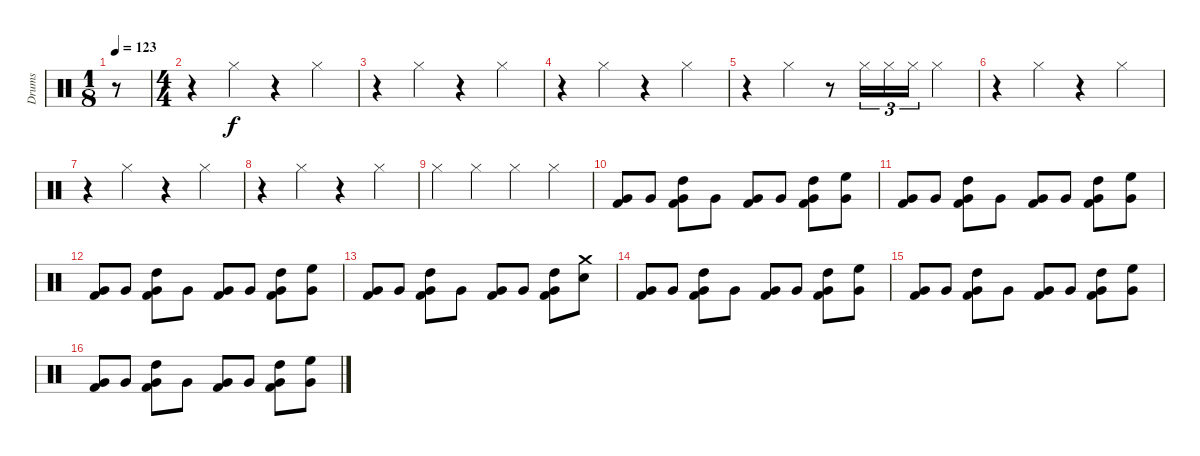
\track ("Drums" "Drums") {instrument percussion}
\staff {score}
\articulation defaults
\ts (1 8)
\tempo 123
\clef neutral
\ks c
r.8{dy f} |
\ts (4 4)
r.4 "Hi-Hat (closed)".4 r.4 "Hi-Hat (closed)".4 |
r.4 "Hi-Hat (closed)".4 r.4 "Hi-Hat (closed)".4 |
r.4 "Hi-Hat (closed)".4 r.4 "Hi-Hat (closed)".4 |
r.4 "Hi-Hat (closed)".4 r.8 "Hi-Hat (closed)".16{tu (3 2)} "Hi-Hat (closed)".16{tu (3 2)} "Hi-Hat (closed)".16{tu (3 2)} "Hi-Hat (closed)".4 |
r.4 "Hi-Hat (closed)".4 r.4 "Hi-Hat (closed)".4 |
r.4 "Hi-Hat (closed)".4 r.4 "Hi-Hat (closed)".4 |
r.4 "Hi-Hat (closed)".4 r.4 "Hi-Hat (closed)".4 |
"Hi-Hat (closed)".4 "Hi-Hat (closed)".4 "Hi-Hat (closed)".4 "Hi-Hat (closed)".4 |
("Very Low Tom (hit)" "Kick (hit) 2").8 "Very Low Tom (hit)".8 ("High Tom (hit)" "Very Low Tom (hit)" "Kick (hit) 2").8 "Very Low Tom (hit)".8 ("Very Low Tom (hit)" "Kick (hit) 2").8 "Very Low Tom (hit)".8 ("High Tom (hit)" "Very Low Tom (hit)" "Kick (hit) 2").8 ("High Floor Tom (hit)" "Very Low Tom (hit)").8 |
("Very Low Tom (hit)" "Kick (hit) 2").8 "Very Low Tom (hit)".8 ("High Tom (hit)" "Very Low Tom (hit)" "Kick (hit) 2").8 "Very Low Tom (hit)".8 ("Very Low Tom (hit)" "Kick (hit) 2").8 "Very Low Tom (hit)".8 ("High Tom (hit)" "Very Low Tom (hit)" "Kick (hit) 2").8 ("High Floor Tom (hit)" "Very Low Tom (hit)").8 |
("Very Low Tom (hit)" "Kick (hit) 2").8 "Very Low Tom (hit)".8 ("High Tom (hit)" "Very Low Tom (hit)" "Kick (hit) 2").8 "Very Low Tom (hit)".8 ("Very Low Tom (hit)" "Kick (hit) 2").8 "Very Low Tom (hit)".8 ("High Tom (hit)" "Very Low Tom (hit)" "Kick (hit) 2").8 ("High Floor Tom (hit)" "Very Low Tom (hit)").8 |
("Very Low Tom (hit)" "Kick (hit) 2").8 "Very Low Tom (hit)".8 ("High Tom (hit)" "Very Low Tom (hit)" "Kick (hit) 2").8 "Very Low Tom (hit)".8 ("Very Low Tom (hit)" "Kick (hit) 2").8 "Very Low Tom (hit)".8 ("High Tom (hit)" "Very Low Tom (hit)" "Kick (hit) 2").8 ("Snare (hit) 2" "Crash medium (hit)").8 |
("Very Low Tom (hit)" "Kick (hit) 2").8 "Very Low Tom (hit)".8 ("High Tom (hit)" "Very Low Tom (hit)" "Kick (hit) 2").8 "Very Low Tom (hit)".8 ("Very Low Tom (hit)" "Kick (hit) 2").8 "Very Low Tom (hit)".8 ("High Tom (hit)" "Very Low Tom (hit)" "Kick (hit) 2").8 ("High Floor Tom (hit)" "Very Low Tom (hit)").8 |
("Very Low Tom (hit)" "Kick (hit) 2").8 "Very Low Tom (hit)".8 ("High Tom (hit)" "Very Low Tom (hit)" "Kick (hit) 2").8 "Very Low Tom (hit)".8 ("Very Low Tom (hit)" "Kick (hit) 2").8 "Very Low Tom (hit)".8 ("High Tom (hit)" "Very Low Tom (hit)" "Kick (hit) 2").8 ("High Floor Tom (hit)" "Very Low Tom (hit)").8 |
("Very Low Tom (hit)" "Kick (hit) 2").8 "Very Low Tom (hit)".8 ("High Tom (hit)" "Very Low Tom (hit)" "Kick (hit) 2").8 "Very Low Tom (hit)".8 ("Very Low Tom (hit)" "Kick (hit) 2").8 "Very Low Tom (hit)".8 ("High Tom (hit)" "Very Low Tom (hit)" "Kick (hit) 2").8 ("High Floor Tom (hit)" "Very Low Tom (hit)").8
